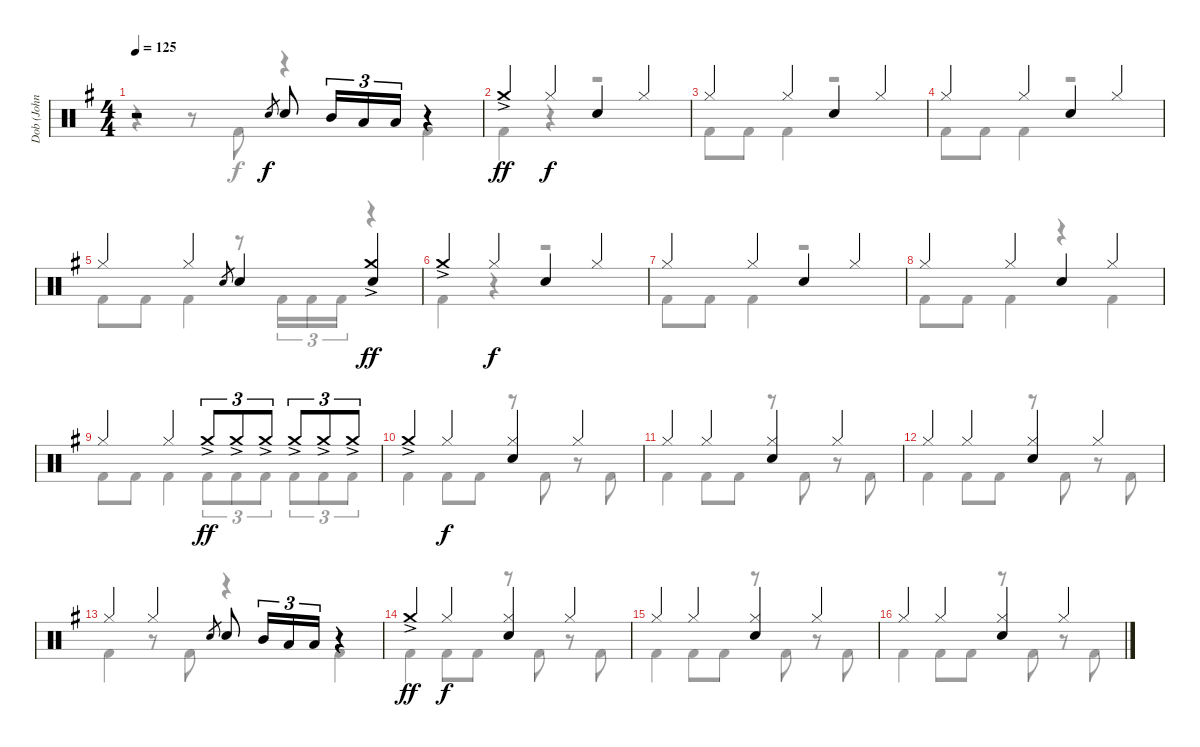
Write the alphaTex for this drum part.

\track ("Dob (John Macaluso)" "Dob (John ") {instrument percussion}
\staff {score}
\articulation defaults
\voice
\ts (4 4)
\tempo 125
\clef neutral
\ks g
r.2{dy f} "Electric Snare (hit)".8{gr} "Electric Snare (hit)".8 "Mid Tom (hit)".16{tu (3 2)} "Low Tom (hit)".16{tu (3 2)} "Low Tom (hit)".16{tu (3 2)} r.4 |
"Crash medium (hit)"{ac}.4{dy ff} "Hi-Hat (closed)".4{dy f} "Electric Snare (hit)".4 "Hi-Hat (closed)".4 |
"Hi-Hat (closed)".4 "Hi-Hat (closed)".4 "Electric Snare (hit)".4 "Hi-Hat (closed)".4 |
"Hi-Hat (closed)".4 "Hi-Hat (closed)".4 "Electric Snare (hit)".4 "Hi-Hat (closed)".4 |
"Hi-Hat (closed)".4 "Hi-Hat (closed)".4 "Electric Snare (hit)".8{gr} "Electric Snare (hit)".4 ("Crash medium (hit)"{ac} "Electric Snare (hit)").4{dy ff} |
"Crash medium (hit)"{ac}.4 "Hi-Hat (closed)".4{dy f} "Electric Snare (hit)".4 "Hi-Hat (closed)".4 |
"Hi-Hat (closed)".4 "Hi-Hat (closed)".4 "Electric Snare (hit)".4 "Hi-Hat (closed)".4 |
"Hi-Hat (closed)".4 "Hi-Hat (closed)".4 "Electric Snare (hit)".4 "Hi-Hat (closed)".4 |
"Hi-Hat (closed)".4 "Hi-Hat (closed)".4 "Crash medium (hit)"{ac}.8{tu (3 2) dy ff} "Crash medium (hit)"{ac}.8{tu (3 2)} "Crash medium (hit)"{ac}.8{tu (3 2)} "Crash medium (hit)"{ac}.8{tu (3 2)} "Crash medium (hit)"{ac}.8{tu (3 2)} "Crash medium (hit)"{ac}.8{tu (3 2)} |
"Crash medium (hit)"{ac}.4 "Hi-Hat (closed)".4{dy f} ("Hi-Hat (closed)" "Electric Snare (hit)").4 "Hi-Hat (closed)".4 |
"Hi-Hat (closed)".4 "Hi-Hat (closed)".4 ("Hi-Hat (closed)" "Electric Snare (hit)").4 "Hi-Hat (closed)".4 |
"Hi-Hat (closed)".4 "Hi-Hat (closed)".4 ("Hi-Hat (closed)" "Electric Snare (hit)").4 "Hi-Hat (closed)".4 |
"Hi-Hat (closed)".4 "Hi-Hat (closed)".4 "Electric Snare (hit)".8{gr} "Electric Snare (hit)".8 "Mid Tom (hit)".16{tu (3 2)} "Low Tom (hit)".16{tu (3 2)} "Low Tom (hit)".16{tu (3 2)} r.4 |
"Crash medium (hit)"{ac}.4{dy ff} "Hi-Hat (closed)".4{dy f} ("Hi-Hat (closed)" "Electric Snare (hit)").4 "Hi-Hat (closed)".4 |
"Hi-Hat (closed)".4 "Hi-Hat (closed)".4 ("Hi-Hat (closed)" "Electric Snare (hit)").4 "Hi-Hat (closed)".4 |
"Hi-Hat (closed)".4 "Hi-Hat (closed)".4 ("Hi-Hat (closed)" "Electric Snare (hit)").4 "Hi-Hat (closed)".4
\voice
\clef neutral
\ottava regular
\simile none
\ks g
r.4{dy f} r.8 "Kick (hit) 2".8 r.4 "Kick (hit) 2".4 |
"Kick (hit) 2".4 r.4 r.2 |
"Kick (hit) 2".8 "Kick (hit) 2".8 "Kick (hit) 2".4 r.2 |
"Kick (hit) 2".8 "Kick (hit) 2".8 "Kick (hit) 2".4 r.2 |
"Kick (hit) 2".8 "Kick (hit) 2".8 "Kick (hit) 2".4 r.8 "Kick (hit) 2".16{tu (3 2)} "Kick (hit) 2".16{tu (3 2)} "Kick (hit) 2".16{tu (3 2)} r.4 |
"Kick (hit) 2".4 r.4 r.2 |
"Kick (hit) 2".8 "Kick (hit) 2".8 "Kick (hit) 2".4 r.2 |
"Kick (hit) 2".8 "Kick (hit) 2".8 "Kick (hit) 2".4 r.4 "Kick (hit) 2".4 |
"Kick (hit) 2".8 "Kick (hit) 2".8 "Kick (hit) 2".4 "Kick (hit) 2".8{tu (3 2)} "Kick (hit) 2".8{tu (3 2)} "Kick (hit) 2".8{tu (3 2)} "Kick (hit) 2".8{tu (3 2)} "Kick (hit) 2".8{tu (3 2)} "Kick (hit) 2".8{tu (3 2)} |
"Kick (hit) 2".4 "Kick (hit) 2".8 "Kick (hit) 2".8 r.8 "Kick (hit) 2".8 r.8 "Kick (hit) 2".8 |
"Kick (hit) 2".4 "Kick (hit) 2".8 "Kick (hit) 2".8 r.8 "Kick (hit) 2".8 r.8 "Kick (hit) 2".8 |
"Kick (hit) 2".4 "Kick (hit) 2".8 "Kick (hit) 2".8 r.8 "Kick (hit) 2".8 r.8 "Kick (hit) 2".8 |
"Kick (hit) 2".4 r.8 "Kick (hit) 2".8 r.4 "Kick (hit) 2".4 |
"Kick (hit) 2".4 "Kick (hit) 2".8 "Kick (hit) 2".8 r.8 "Kick (hit) 2".8 r.8 "Kick (hit) 2".8 |
"Kick (hit) 2".4 "Kick (hit) 2".8 "Kick (hit) 2".8 r.8 "Kick (hit) 2".8 r.8 "Kick (hit) 2".8 |
"Kick (hit) 2".4 "Kick (hit) 2".8 "Kick (hit) 2".8 r.8 "Kick (hit) 2".8 r.8 "Kick (hit) 2".8
